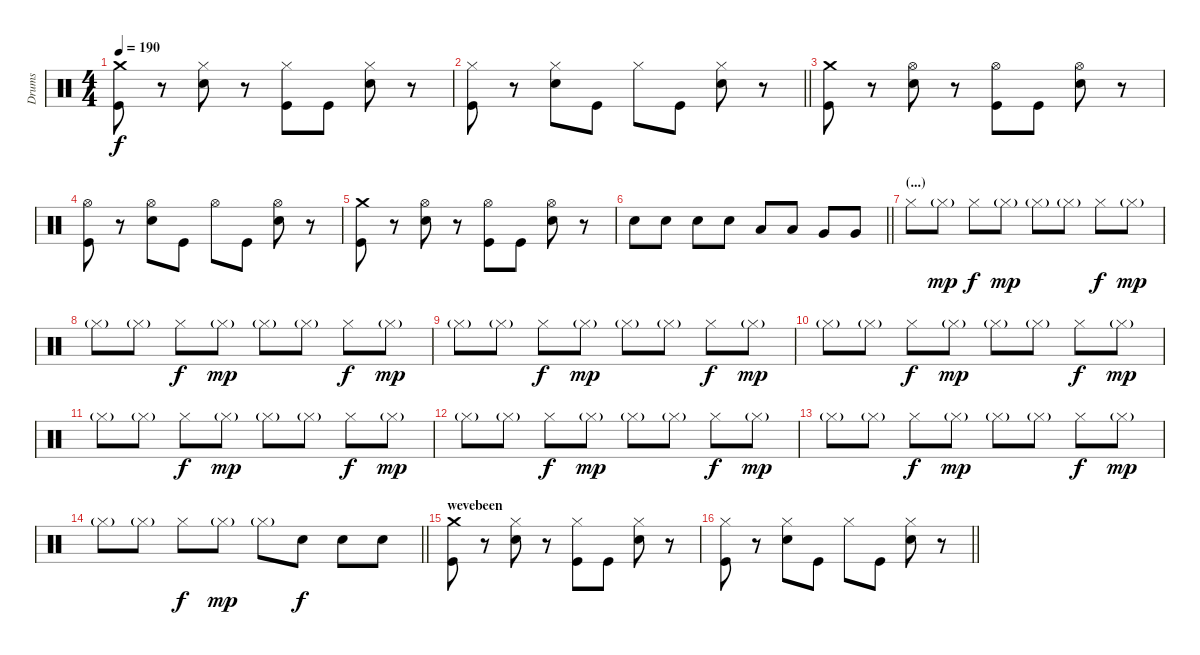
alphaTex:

\track ("Drums" "Drums") {instrument percussion}
\staff {score}
\articulation defaults
\ts (4 4)
\tempo 190
\clef neutral
\ks c
("Crash medium (hit)" "Kick (hit)").8{dy f} r.8 ("Hi-Hat (closed)" "Snare (hit) 2").8 r.8 ("Hi-Hat (closed)" "Kick (hit)").8 "Kick (hit)".8 ("Hi-Hat (closed)" "Snare (hit) 2").8 r.8 |
\barLineRight lightlight
("Hi-Hat (closed)" "Kick (hit)").8 r.8 ("Hi-Hat (closed)" "Snare (hit) 2").8 "Kick (hit)".8 "Hi-Hat (closed)".8 "Kick (hit)".8 ("Hi-Hat (closed)" "Snare (hit) 2").8 r.8 |
("Crash medium (hit)" "Kick (hit)").8 r.8 ("Hi-Hat (open)" "Snare (hit) 2").8 r.8 ("Hi-Hat (open)" "Kick (hit)").8 "Kick (hit)".8 ("Hi-Hat (open)" "Snare (hit) 2").8 r.8 |
("Hi-Hat (open)" "Kick (hit)").8 r.8 ("Hi-Hat (open)" "Snare (hit) 2").8 "Kick (hit)".8 "Hi-Hat (open)".8 "Kick (hit)".8 ("Hi-Hat (open)" "Snare (hit) 2").8 r.8 |
("Crash medium (hit)" "Kick (hit)").8 r.8 ("Hi-Hat (open)" "Snare (hit) 2").8 r.8 ("Hi-Hat (open)" "Kick (hit)").8 "Kick (hit)".8 ("Hi-Hat (open)" "Snare (hit) 2").8 r.8 |
\barLineRight lightlight "Snare (hit) 2".8 "Snare (hit) 2".8 "Snare (hit) 2".8 "Snare (hit) 2".8 "Low Tom (hit)".8 "Low Tom (hit)".8 "Very Low Tom (hit)".8 "Very Low Tom (hit)".8
|
\section ("" "(...)")
"Hi-Hat (closed)".8 "Hi-Hat (closed)"{g}.8{dy mp} "Hi-Hat (closed)".8{dy f} "Hi-Hat (closed)"{g}.8{dy mp} "Hi-Hat (closed)"{g}.8 "Hi-Hat (closed)"{g}.8 "Hi-Hat (closed)".8{dy f} "Hi-Hat (closed)"{g}.8{dy mp} |
"Hi-Hat (closed)"{g}.8 "Hi-Hat (closed)"{g}.8 "Hi-Hat (closed)".8{dy f} "Hi-Hat (closed)"{g}.8{dy mp} "Hi-Hat (closed)"{g}.8 "Hi-Hat (closed)"{g}.8 "Hi-Hat (closed)".8{dy f} "Hi-Hat (closed)"{g}.8{dy mp} |
"Hi-Hat (closed)"{g}.8 "Hi-Hat (closed)"{g}.8 "Hi-Hat (closed)".8{dy f} "Hi-Hat (closed)"{g}.8{dy mp} "Hi-Hat (closed)"{g}.8 "Hi-Hat (closed)"{g}.8 "Hi-Hat (closed)".8{dy f} "Hi-Hat (closed)"{g}.8{dy mp} |
"Hi-Hat (closed)"{g}.8 "Hi-Hat (closed)"{g}.8 "Hi-Hat (closed)".8{dy f} "Hi-Hat (closed)"{g}.8{dy mp} "Hi-Hat (closed)"{g}.8 "Hi-Hat (closed)"{g}.8 "Hi-Hat (closed)".8{dy f} "Hi-Hat (closed)"{g}.8{dy mp} |
"Hi-Hat (closed)"{g}.8 "Hi-Hat (closed)"{g}.8 "Hi-Hat (closed)".8{dy f} "Hi-Hat (closed)"{g}.8{dy mp} "Hi-Hat (closed)"{g}.8 "Hi-Hat (closed)"{g}.8 "Hi-Hat (closed)".8{dy f} "Hi-Hat (closed)"{g}.8{dy mp} |
"Hi-Hat (closed)"{g}.8 "Hi-Hat (closed)"{g}.8 "Hi-Hat (closed)".8{dy f} "Hi-Hat (closed)"{g}.8{dy mp} "Hi-Hat (closed)"{g}.8 "Hi-Hat (closed)"{g}.8 "Hi-Hat (closed)".8{dy f} "Hi-Hat (closed)"{g}.8{dy mp} |
"Hi-Hat (closed)"{g}.8 "Hi-Hat (closed)"{g}.8 "Hi-Hat (closed)".8{dy f} "Hi-Hat (closed)"{g}.8{dy mp} "Hi-Hat (closed)"{g}.8 "Hi-Hat (closed)"{g}.8 "Hi-Hat (closed)".8{dy f} "Hi-Hat (closed)"{g}.8{dy mp} |
\barLineRight lightlight "Hi-Hat (closed)"{g}.8 "Hi-Hat (closed)"{g}.8 "Hi-Hat (closed)".8{dy f} "Hi-Hat (closed)"{g}.8{dy mp} "Hi-Hat (closed)"{g}.8 "Snare (hit) 2".8{dy f} "Snare (hit) 2".8 "Snare (hit) 2".8
|
\section ("" "wevebeen")
("Crash medium (hit)" "Kick (hit)").8 r.8 ("Hi-Hat (closed)" "Snare (hit) 2").8 r.8 ("Hi-Hat (closed)" "Kick (hit)").8 "Kick (hit)".8 ("Hi-Hat (closed)" "Snare (hit) 2").8 r.8 |
\barLineRight lightlight
("Hi-Hat (closed)" "Kick (hit)").8 r.8 ("Hi-Hat (closed)" "Snare (hit) 2").8 "Kick (hit)".8 "Hi-Hat (closed)".8 "Kick (hit)".8 ("Hi-Hat (closed)" "Snare (hit) 2").8 r.8
